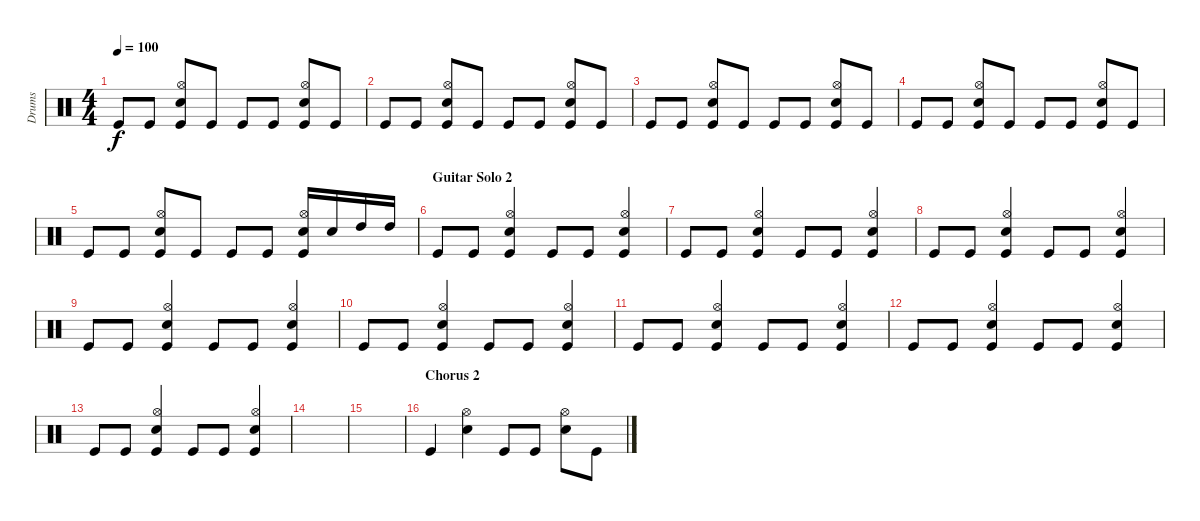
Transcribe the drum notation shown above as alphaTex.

\track ("Drums" "Drums") {instrument percussion}
\staff {score}
\articulation defaults
\ts (4 4)
\tempo 100
\clef neutral
\ks c "Kick (hit)".8{dy f} "Kick (hit)".8
("Hi-Hat (open)" "Electric Snare (hit)" "Kick (hit)").8 "Kick (hit)".8 "Kick (hit)".8 "Kick (hit)".8 ("Hi-Hat (open)" "Electric Snare (hit)" "Kick (hit)").8 "Kick (hit)".8 |
"Kick (hit)".8 "Kick (hit)".8 ("Hi-Hat (open)" "Electric Snare (hit)" "Kick (hit)").8 "Kick (hit)".8 "Kick (hit)".8 "Kick (hit)".8 ("Hi-Hat (open)" "Electric Snare (hit)" "Kick (hit)").8 "Kick (hit)".8 |
"Kick (hit)".8 "Kick (hit)".8 ("Hi-Hat (open)" "Electric Snare (hit)" "Kick (hit)").8 "Kick (hit)".8 "Kick (hit)".8 "Kick (hit)".8 ("Hi-Hat (open)" "Electric Snare (hit)" "Kick (hit)").8 "Kick (hit)".8 |
"Kick (hit)".8 "Kick (hit)".8 ("Hi-Hat (open)" "Electric Snare (hit)" "Kick (hit)").8 "Kick (hit)".8 "Kick (hit)".8 "Kick (hit)".8 ("Hi-Hat (open)" "Electric Snare (hit)" "Kick (hit)").8 "Kick (hit)".8 |
"Kick (hit)".8 "Kick (hit)".8 ("Hi-Hat (open)" "Electric Snare (hit)" "Kick (hit)").8 "Kick (hit)".8 "Kick (hit)".8 "Kick (hit)".8 ("Hi-Hat (open)" "Electric Snare (hit)" "Kick (hit)").16 "Electric Snare (hit)".16 "High Tom (hit)".16 "High Tom (hit)".16 |
\section ("" "Guitar Solo 2")
"Kick (hit)".8 "Kick (hit)".8 ("Hi-Hat (open)" "Electric Snare (hit)" "Kick (hit)").4 "Kick (hit)".8 "Kick (hit)".8 ("Hi-Hat (open)" "Electric Snare (hit)" "Kick (hit)").4 |
"Kick (hit)".8 "Kick (hit)".8 ("Hi-Hat (open)" "Electric Snare (hit)" "Kick (hit)").4 "Kick (hit)".8 "Kick (hit)".8 ("Hi-Hat (open)" "Electric Snare (hit)" "Kick (hit)").4 |
"Kick (hit)".8 "Kick (hit)".8 ("Hi-Hat (open)" "Electric Snare (hit)" "Kick (hit)").4 "Kick (hit)".8 "Kick (hit)".8 ("Hi-Hat (open)" "Electric Snare (hit)" "Kick (hit)").4 |
"Kick (hit)".8 "Kick (hit)".8 ("Hi-Hat (open)" "Electric Snare (hit)" "Kick (hit)").4 "Kick (hit)".8 "Kick (hit)".8 ("Hi-Hat (open)" "Electric Snare (hit)" "Kick (hit)").4 |
"Kick (hit)".8 "Kick (hit)".8 ("Hi-Hat (open)" "Electric Snare (hit)" "Kick (hit)").4 "Kick (hit)".8 "Kick (hit)".8 ("Hi-Hat (open)" "Electric Snare (hit)" "Kick (hit)").4 |
"Kick (hit)".8 "Kick (hit)".8 ("Hi-Hat (open)" "Electric Snare (hit)" "Kick (hit)").4 "Kick (hit)".8 "Kick (hit)".8 ("Hi-Hat (open)" "Electric Snare (hit)" "Kick (hit)").4 |
"Kick (hit)".8 "Kick (hit)".8 ("Hi-Hat (open)" "Electric Snare (hit)" "Kick (hit)").4 "Kick (hit)".8 "Kick (hit)".8 ("Hi-Hat (open)" "Electric Snare (hit)" "Kick (hit)").4 |
"Kick (hit)".8 "Kick (hit)".8 ("Hi-Hat (open)" "Electric Snare (hit)" "Kick (hit)").4 "Kick (hit)".8 "Kick (hit)".8 ("Hi-Hat (open)" "Electric Snare (hit)" "Kick (hit)").4 |
|
|
\section ("" "Chorus 2")
"Kick (hit)".4 ("Hi-Hat (open)" "Electric Snare (hit)").4 "Kick (hit)".8 "Kick (hit)".8 ("Hi-Hat (open)" "Electric Snare (hit)").8 "Kick (hit)".8
